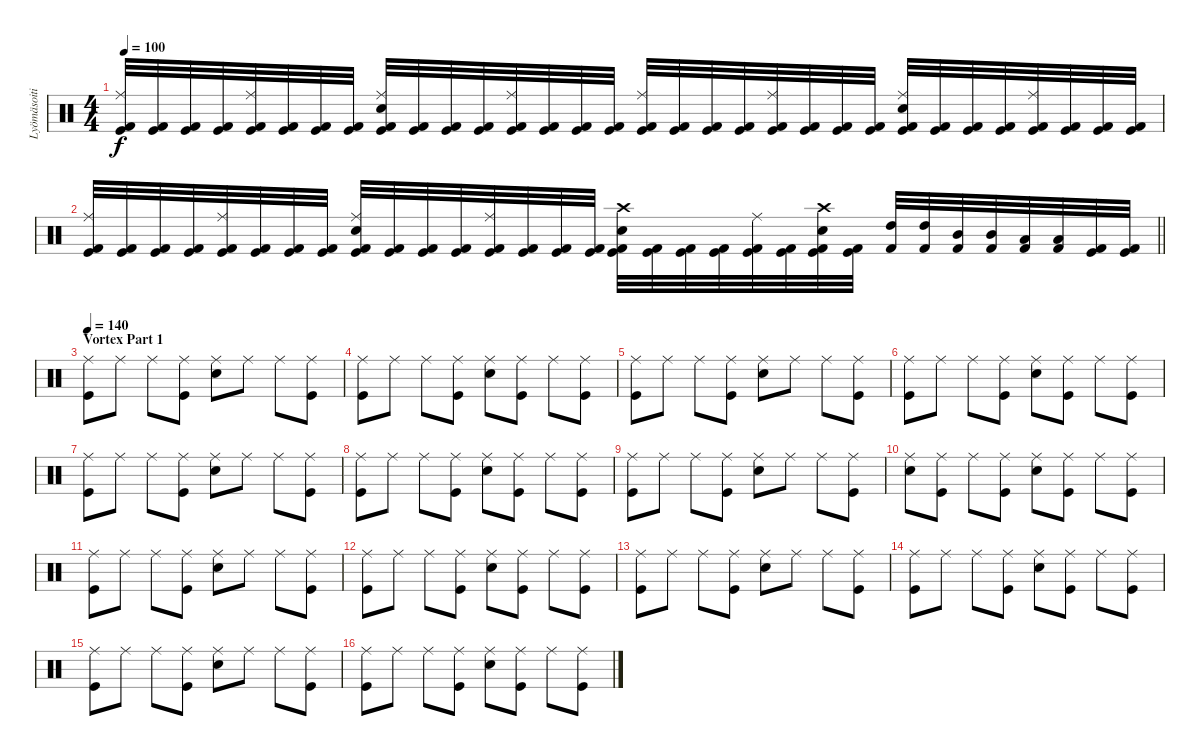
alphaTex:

\track ("Lyömäsoitin" "Lyömäsoiti") {instrument percussion}
\staff {score}
\articulation defaults
\ts (4 4)
\tempo 100
\clef neutral
\ks c
("Kick (hit) 2" "Ride (middle)" "Kick (hit)").32{dy f} ("Kick (hit) 2" "Kick (hit)").32 ("Kick (hit) 2" "Kick (hit)").32 ("Kick (hit) 2" "Kick (hit)").32 ("Kick (hit) 2" "Ride (middle)" "Kick (hit)").32 ("Kick (hit) 2" "Kick (hit)").32 ("Kick (hit) 2" "Kick (hit)").32 ("Kick (hit) 2" "Kick (hit)").32 ("Kick (hit) 2" "Ride (middle)" "Electric Snare (hit)" "Kick (hit)").32 ("Kick (hit) 2" "Kick (hit)").32 ("Kick (hit) 2" "Kick (hit)").32 ("Kick (hit) 2" "Kick (hit)").32 ("Kick (hit) 2" "Ride (middle)" "Kick (hit)").32 ("Kick (hit) 2" "Kick (hit)").32 ("Kick (hit) 2" "Kick (hit)").32 ("Kick (hit) 2" "Kick (hit)").32 ("Kick (hit) 2" "Ride (middle)" "Kick (hit)").32 ("Kick (hit) 2" "Kick (hit)").32 ("Kick (hit) 2" "Kick (hit)").32 ("Kick (hit) 2" "Kick (hit)").32 ("Kick (hit) 2" "Ride (middle)" "Kick (hit)").32 ("Kick (hit) 2" "Kick (hit)").32 ("Kick (hit) 2" "Kick (hit)").32 ("Kick (hit) 2" "Kick (hit)").32 ("Kick (hit) 2" "Ride (middle)" "Electric Snare (hit)" "Kick (hit)").32 ("Kick (hit) 2" "Kick (hit)").32 ("Kick (hit) 2" "Kick (hit)").32 ("Kick (hit) 2" "Kick (hit)").32 ("Kick (hit) 2" "Ride (middle)" "Kick (hit)").32 ("Kick (hit) 2" "Kick (hit)").32 ("Kick (hit) 2" "Kick (hit)").32 ("Kick (hit) 2" "Kick (hit)").32 |
\barLineRight lightlight
("Kick (hit) 2" "Ride (middle)" "Kick (hit)").32 ("Kick (hit) 2" "Kick (hit)").32 ("Kick (hit) 2" "Kick (hit)").32 ("Kick (hit) 2" "Kick (hit)").32 ("Kick (hit) 2" "Ride (middle)" "Kick (hit)").32 ("Kick (hit) 2" "Kick (hit)").32 ("Kick (hit) 2" "Kick (hit)").32 ("Kick (hit) 2" "Kick (hit)").32 ("Kick (hit) 2" "Ride (middle)" "Electric Snare (hit)" "Kick (hit)").32 ("Kick (hit) 2" "Kick (hit)").32 ("Kick (hit) 2" "Kick (hit)").32 ("Kick (hit) 2" "Kick (hit)").32 ("Kick (hit) 2" "Ride (middle)" "Kick (hit)").32 ("Kick (hit) 2" "Kick (hit)").32 ("Kick (hit) 2" "Kick (hit)").32 ("Kick (hit) 2" "Kick (hit)").32 ("Kick (hit) 2" "Crash high (hit)" "Electric Snare (hit)" "Kick (hit)").32 ("Kick (hit) 2" "Kick (hit)").32 ("Kick (hit) 2" "Kick (hit)").32 ("Kick (hit) 2" "Kick (hit)").32 ("Kick (hit) 2" "Ride (middle)" "Kick (hit)").32 ("Kick (hit) 2" "Kick (hit)").32 ("Kick (hit) 2" "Crash high (hit)" "Electric Snare (hit)" "Kick (hit)").32 ("Kick (hit) 2" "Kick (hit)").32 ("Kick (hit) 2" "High Tom (hit)").32 ("Kick (hit) 2" "High Tom (hit)").32 ("Kick (hit) 2" "Mid Tom (hit)").32 ("Kick (hit) 2" "Mid Tom (hit)").32 ("Kick (hit) 2" "Low Tom (hit)").32 ("Kick (hit) 2" "Low Tom (hit)").32 ("Kick (hit) 2" "Kick (hit)").32 ("Kick (hit) 2" "Kick (hit)").32 |
\section ("" "Vortex Part 1")
\tempo 140
("Ride (middle)" "Kick (hit)").8 "Ride (middle)".8 "Ride (middle)".8 ("Ride (middle)" "Kick (hit)").8 ("Ride (middle)" "Electric Snare (hit)").8 "Ride (middle)".8 "Ride (middle)".8 ("Ride (middle)" "Kick (hit)").8 |
("Ride (middle)" "Kick (hit)").8 "Ride (middle)".8 "Ride (middle)".8 ("Ride (middle)" "Kick (hit)").8 ("Ride (middle)" "Electric Snare (hit)").8 ("Ride (middle)" "Kick (hit)").8 "Ride (middle)".8 ("Ride (middle)" "Kick (hit)").8 |
("Ride (middle)" "Kick (hit)").8 "Ride (middle)".8 "Ride (middle)".8 ("Ride (middle)" "Kick (hit)").8 ("Ride (middle)" "Electric Snare (hit)").8 "Ride (middle)".8 "Ride (middle)".8 ("Ride (middle)" "Kick (hit)").8 |
("Ride (middle)" "Kick (hit)").8 "Ride (middle)".8 "Ride (middle)".8 ("Ride (middle)" "Kick (hit)").8 ("Ride (middle)" "Electric Snare (hit)").8 ("Ride (middle)" "Kick (hit)").8 "Ride (middle)".8 ("Ride (middle)" "Kick (hit)").8 |
("Ride (middle)" "Kick (hit)").8 "Ride (middle)".8 "Ride (middle)".8 ("Ride (middle)" "Kick (hit)").8 ("Ride (middle)" "Electric Snare (hit)").8 "Ride (middle)".8 "Ride (middle)".8 ("Ride (middle)" "Kick (hit)").8 |
("Ride (middle)" "Kick (hit)").8 "Ride (middle)".8 "Ride (middle)".8 ("Ride (middle)" "Kick (hit)").8 ("Ride (middle)" "Electric Snare (hit)").8 ("Ride (middle)" "Kick (hit)").8 "Ride (middle)".8 ("Ride (middle)" "Kick (hit)").8 |
("Ride (middle)" "Kick (hit)").8 "Ride (middle)".8 "Ride (middle)".8 ("Ride (middle)" "Kick (hit)").8 ("Ride (middle)" "Electric Snare (hit)").8 "Ride (middle)".8 "Ride (middle)".8 ("Ride (middle)" "Kick (hit)").8 |
("Ride (middle)" "Electric Snare (hit)").8 ("Ride (middle)" "Kick (hit)").8 "Ride (middle)".8 ("Ride (middle)" "Kick (hit)").8 ("Ride (middle)" "Electric Snare (hit)").8 ("Ride (middle)" "Kick (hit)").8 "Ride (middle)".8 ("Ride (middle)" "Kick (hit)").8 |
("Ride (middle)" "Kick (hit)").8 "Ride (middle)".8 "Ride (middle)".8 ("Ride (middle)" "Kick (hit)").8 ("Ride (middle)" "Electric Snare (hit)").8 "Ride (middle)".8 "Ride (middle)".8 ("Ride (middle)" "Kick (hit)").8 |
("Ride (middle)" "Kick (hit)").8 "Ride (middle)".8 "Ride (middle)".8 ("Ride (middle)" "Kick (hit)").8 ("Ride (middle)" "Electric Snare (hit)").8 ("Ride (middle)" "Kick (hit)").8 "Ride (middle)".8 ("Ride (middle)" "Kick (hit)").8 |
("Ride (middle)" "Kick (hit)").8 "Ride (middle)".8 "Ride (middle)".8 ("Ride (middle)" "Kick (hit)").8 ("Ride (middle)" "Electric Snare (hit)").8 "Ride (middle)".8 "Ride (middle)".8 ("Ride (middle)" "Kick (hit)").8 |
("Ride (middle)" "Kick (hit)").8 "Ride (middle)".8 "Ride (middle)".8 ("Ride (middle)" "Kick (hit)").8 ("Ride (middle)" "Electric Snare (hit)").8 ("Ride (middle)" "Kick (hit)").8 "Ride (middle)".8 ("Ride (middle)" "Kick (hit)").8 |
("Ride (middle)" "Kick (hit)").8 "Ride (middle)".8 "Ride (middle)".8 ("Ride (middle)" "Kick (hit)").8 ("Ride (middle)" "Electric Snare (hit)").8 "Ride (middle)".8 "Ride (middle)".8 ("Ride (middle)" "Kick (hit)").8 |
("Ride (middle)" "Kick (hit)").8 "Ride (middle)".8 "Ride (middle)".8 ("Ride (middle)" "Kick (hit)").8 ("Ride (middle)" "Electric Snare (hit)").8 ("Ride (middle)" "Kick (hit)").8 "Ride (middle)".8 ("Ride (middle)" "Kick (hit)").8
